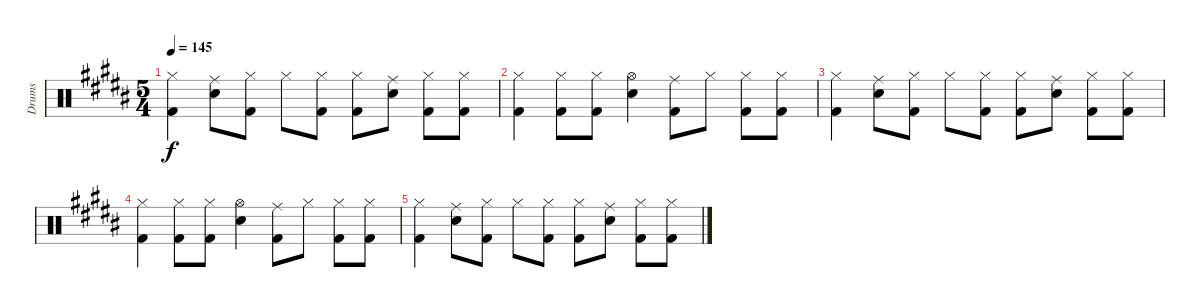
\track ("Drums" "Drums") {instrument percussion}
\staff {score}
\articulation defaults
\ts (5 4)
\tempo 145
\clef neutral
\ks b
("Hi-Hat (closed)" "Kick (hit) 2").4{dy f} ("Ride (middle)" "Electric Snare (hit)").8 ("Hi-Hat (closed)" "Kick (hit) 2").8 "Hi-Hat (closed)".8 ("Hi-Hat (closed)" "Kick (hit) 2").8 ("Hi-Hat (closed)" "Kick (hit) 2").8 ("Ride (middle)" "Electric Snare (hit)").8 ("Hi-Hat (closed)" "Kick (hit) 2").8 ("Hi-Hat (closed)" "Kick (hit) 2").8 |
("Hi-Hat (closed)" "Kick (hit) 2").4 ("Hi-Hat (closed)" "Kick (hit) 2").8 ("Hi-Hat (closed)" "Kick (hit) 2").8 ("Hi-Hat (open)" "Electric Snare (hit)").4 ("Ride (middle)" "Kick (hit) 2").8 "Hi-Hat (closed)".8 ("Hi-Hat (closed)" "Kick (hit) 2").8 ("Hi-Hat (closed)" "Kick (hit) 2").8 |
("Hi-Hat (closed)" "Kick (hit) 2").4 ("Ride (middle)" "Electric Snare (hit)").8 ("Hi-Hat (closed)" "Kick (hit) 2").8 "Hi-Hat (closed)".8 ("Hi-Hat (closed)" "Kick (hit) 2").8 ("Hi-Hat (closed)" "Kick (hit) 2").8 ("Ride (middle)" "Electric Snare (hit)").8 ("Hi-Hat (closed)" "Kick (hit) 2").8 ("Hi-Hat (closed)" "Kick (hit) 2").8 |
("Hi-Hat (closed)" "Kick (hit) 2").4 ("Hi-Hat (closed)" "Kick (hit) 2").8 ("Hi-Hat (closed)" "Kick (hit) 2").8 ("Hi-Hat (open)" "Electric Snare (hit)").4 ("Ride (middle)" "Kick (hit) 2").8 "Hi-Hat (closed)".8 ("Hi-Hat (closed)" "Kick (hit) 2").8 ("Hi-Hat (closed)" "Kick (hit) 2").8 |
("Hi-Hat (closed)" "Kick (hit) 2").4 ("Ride (middle)" "Electric Snare (hit)").8 ("Hi-Hat (closed)" "Kick (hit) 2").8 "Hi-Hat (closed)".8 ("Hi-Hat (closed)" "Kick (hit) 2").8 ("Hi-Hat (closed)" "Kick (hit) 2").8 ("Ride (middle)" "Electric Snare (hit)").8 ("Hi-Hat (closed)" "Kick (hit) 2").8 ("Hi-Hat (closed)" "Kick (hit) 2").8
